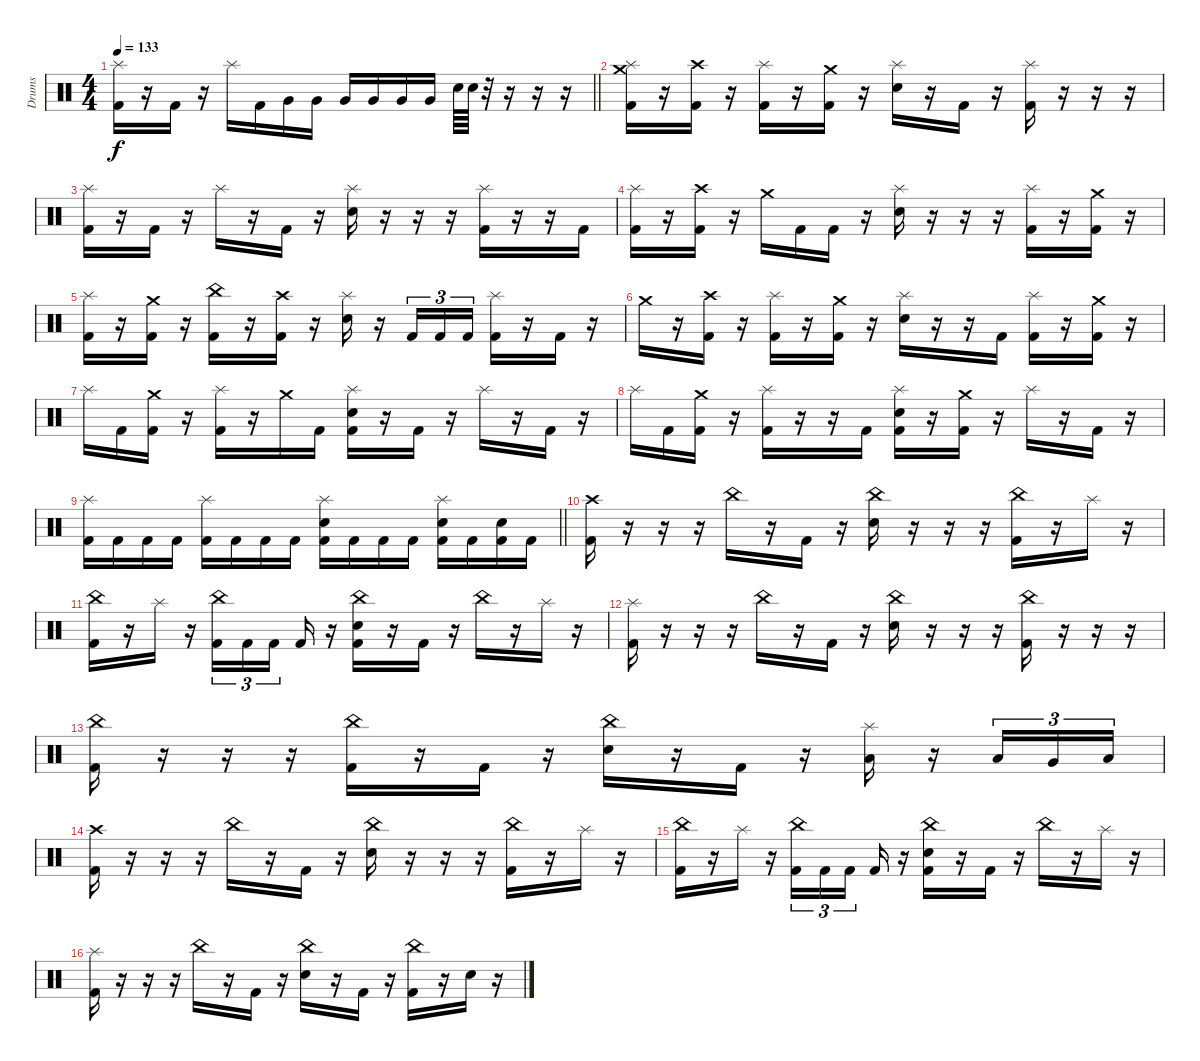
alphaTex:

\track ("Drums" "Drums") {instrument percussion}
\staff {score}
\articulation defaults
\ts (4 4)
\tempo 133
\clef neutral
\barLineRight lightlight
\ks c
("Splash (hit)" "Kick (hit) 2").16{dy f} r.16 "Kick (hit) 2".16 r.16 "Splash (hit)".16 "Kick (hit) 2".16 "Very Low Tom (hit)".16 "Very Low Tom (hit)".16 "Very Low Tom (hit)".16 "Very Low Tom (hit)".16 "Very Low Tom (hit)".16 "Very Low Tom (hit)".16 "Electric Snare (hit)".64 "Electric Snare (hit)".64 r.32 r.16 r.16 r.16 |
\section ("" "")
("Crash medium (hit)" "Splash (hit)" "Kick (hit) 2").16 r.16 ("Crash high (hit)" "Kick (hit) 2").16 r.16 ("Splash (hit)" "Kick (hit) 2").16 r.16 ("Crash medium (hit)" "Kick (hit) 2").16 r.16 ("Splash (hit)" "Electric Snare (hit)").16 r.16 "Kick (hit) 2".16 r.16 ("Splash (hit)" "Kick (hit) 2").16 r.16 r.16 r.16 |
("Splash (hit)" "Kick (hit) 2").16 r.16 "Kick (hit) 2".16 r.16 "Splash (hit)".16 r.16 "Kick (hit) 2".16 r.16 ("Splash (hit)" "Electric Snare (hit)").16 r.16 r.16 r.16 ("Splash (hit)" "Kick (hit) 2").16 r.16 r.16 "Kick (hit) 2".16 |
("Splash (hit)" "Kick (hit) 2").16 r.16 ("Crash high (hit)" "Kick (hit) 2").16 r.16 "Crash medium (hit)".16 "Kick (hit) 2".16 "Kick (hit) 2".16 r.16 ("Splash (hit)" "Electric Snare (hit)").16 r.16 r.16 r.16 ("Splash (hit)" "Kick (hit) 2").16 r.16 ("Crash medium (hit)" "Kick (hit) 2").16 r.16 |
("Splash (hit)" "Kick (hit) 2").16 r.16 ("Crash medium (hit)" "Kick (hit) 2").16 r.16 ("China (hit)" "Kick (hit) 2").16 r.16 ("Crash high (hit)" "Kick (hit) 2").16 r.16 ("Splash (hit)" "Electric Snare (hit)").16 r.16 "Kick (hit) 2".16{tu (3 2)} "Kick (hit) 2".16{tu (3 2)} "Kick (hit) 2".16{tu (3 2)} ("Splash (hit)" "Kick (hit) 2").16 r.16 "Kick (hit) 2".16 r.16 |
"Crash medium (hit)".16 r.16 ("Crash high (hit)" "Kick (hit) 2").16 r.16 ("Splash (hit)" "Kick (hit) 2").16 r.16 ("Crash medium (hit)" "Kick (hit) 2").16 r.16 ("Splash (hit)" "Electric Snare (hit)").16 r.16 r.16 "Kick (hit) 2".16 ("Splash (hit)" "Kick (hit) 2").16 r.16 ("Crash medium (hit)" "Kick (hit) 2").16 r.16 |
"Splash (hit)".16 "Kick (hit) 2".16 ("Crash medium (hit)" "Kick (hit) 2").16 r.16 ("Splash (hit)" "Kick (hit) 2").16 r.16 "Crash medium (hit)".16 "Kick (hit) 2".16 ("Splash (hit)" "Electric Snare (hit)" "Kick (hit) 2").16 r.16 "Kick (hit) 2".16 r.16 "Splash (hit)".16 r.16 "Kick (hit) 2".16 r.16 |
"Splash (hit)".16 "Kick (hit) 2".16 ("Crash medium (hit)" "Kick (hit) 2").16 r.16 ("Splash (hit)" "Kick (hit) 2").16 r.16 r.16 "Kick (hit) 2".16 ("Splash (hit)" "Electric Snare (hit)" "Kick (hit) 2").16 r.16 ("Crash medium (hit)" "Kick (hit) 2").16 r.16 "Splash (hit)".16 r.16 "Kick (hit) 2".16 r.16 |
\barLineRight lightlight
("Splash (hit)" "Kick (hit) 2").16 "Kick (hit) 2".16 "Kick (hit) 2".16 "Kick (hit) 2".16 ("Splash (hit)" "Kick (hit) 2").16 "Kick (hit) 2".16 "Kick (hit) 2".16 "Kick (hit) 2".16 ("Splash (hit)" "Electric Snare (hit)" "Kick (hit) 2").16 "Kick (hit) 2".16 "Kick (hit) 2".16 "Kick (hit) 2".16 ("Splash (hit)" "Electric Snare (hit)" "Kick (hit) 2").16 "Kick (hit) 2".16 ("Electric Snare (hit)" "Kick (hit) 2").16 "Kick (hit) 2".16 |
\section ("" "")
("Crash high (hit)" "Kick (hit) 2").16 r.16 r.16 r.16 "China (hit)".16 r.16 "Kick (hit) 2".16 r.16 ("China (hit)" "Electric Snare (hit)").16 r.16 r.16 r.16 ("China (hit)" "Kick (hit) 2").16 r.16 "Splash (hit)".16 r.16 |
("China (hit)" "Kick (hit) 2").16 r.16 "Splash (hit)".16 r.16 ("China (hit)" "Kick (hit) 2").16{tu (3 2)} "Kick (hit) 2".16{tu (3 2)} "Kick (hit) 2".16{tu (3 2) beam splitsecondary} "Kick (hit) 2".16 r.16 ("China (hit)" "Electric Snare (hit)" "Kick (hit) 2").16 r.16 "Kick (hit) 2".16 r.16 "China (hit)".16 r.16 "Splash (hit)".16 r.16 |
("Splash (hit)" "Kick (hit) 2").16 r.16 r.16 r.16 "China (hit)".16 r.16 "Kick (hit) 2".16 r.16 ("China (hit)" "Electric Snare (hit)").16 r.16 r.16 r.16 ("China (hit)" "Kick (hit) 2").16 r.16 r.16 r.16 |
("China (hit)" "Kick (hit) 2").16 r.16 r.16 r.16 ("China (hit)" "Kick (hit) 2").16 r.16 "Kick (hit) 2".16 r.16 ("China (hit)" "Electric Snare (hit)").16 r.16 "Kick (hit) 2".16 r.16 ("Splash (hit)" "Low Tom (hit)").16 r.16 "Low Tom (hit)".16{tu (3 2)} "Very Low Tom (hit)".16{tu (3 2)} "Low Floor Tom (hit)".16{tu (3 2)} |
("Crash high (hit)" "Kick (hit) 2").16 r.16 r.16 r.16 "China (hit)".16 r.16 "Kick (hit) 2".16 r.16 ("China (hit)" "Electric Snare (hit)").16 r.16 r.16 r.16 ("China (hit)" "Kick (hit) 2").16 r.16 "Splash (hit)".16 r.16 |
("China (hit)" "Kick (hit) 2").16 r.16 "Splash (hit)".16 r.16 ("China (hit)" "Kick (hit) 2").16{tu (3 2)} "Kick (hit) 2".16{tu (3 2)} "Kick (hit) 2".16{tu (3 2) beam splitsecondary} "Kick (hit) 2".16 r.16 ("China (hit)" "Electric Snare (hit)" "Kick (hit) 2").16 r.16 "Kick (hit) 2".16 r.16 "China (hit)".16 r.16 "Splash (hit)".16 r.16 |
("Splash (hit)" "Kick (hit) 2").16 r.16 r.16 r.16 "China (hit)".16 r.16 "Kick (hit) 2".16 r.16 ("China (hit)" "Electric Snare (hit)").16 r.16 "Kick (hit) 2".16 r.16 ("China (hit)" "Kick (hit) 2").16 r.16 "Electric Snare (hit)".16 r.16
